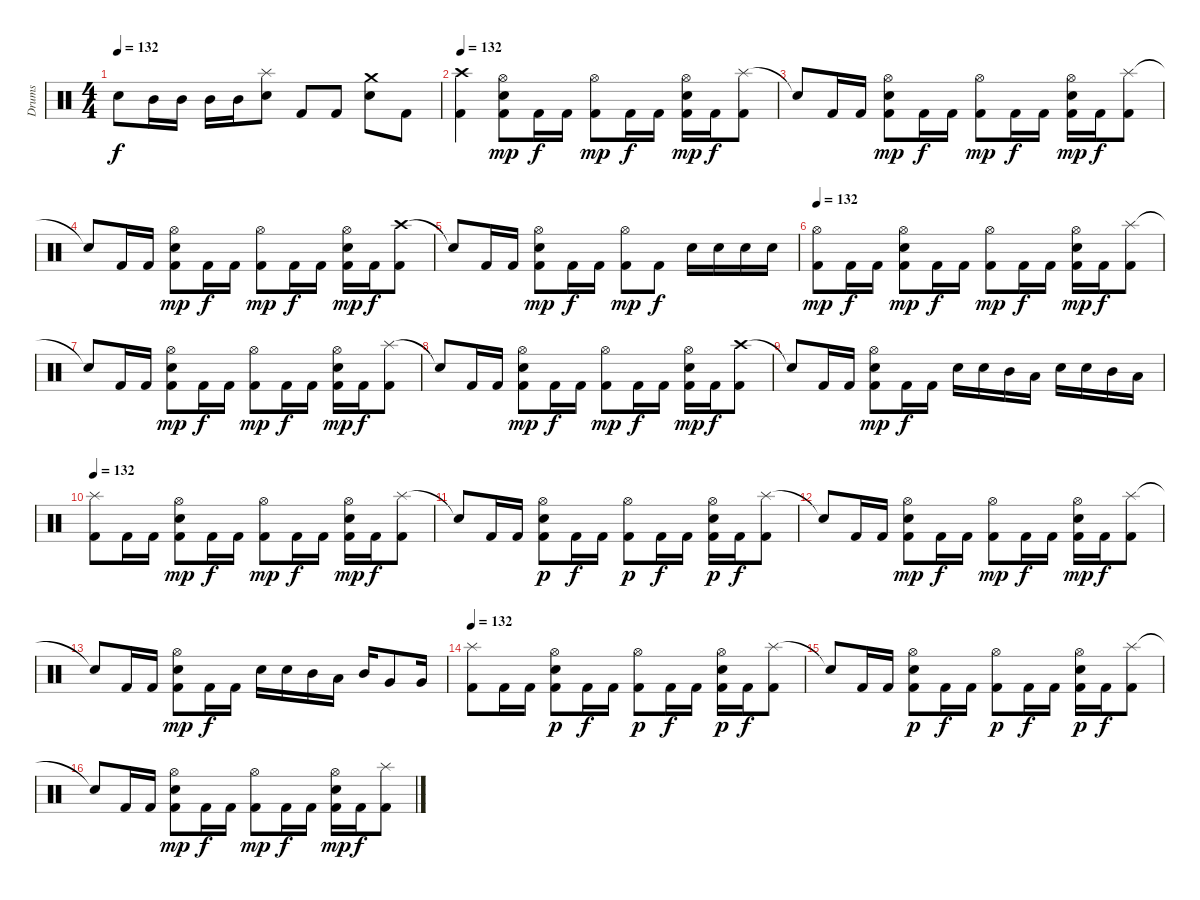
\track ("Drums" "Drums") {instrument percussion}
\staff {score}
\articulation defaults
\ts (4 4)
\tempo 132
\clef neutral
\ks c "Snare (hit) 2".8{dy f} "Mid Tom (hit)".16 "Mid Tom (hit)".16 "Mid Tom (hit)".16 "Mid Tom (hit)".16
("Snare (hit) 2" "Splash (hit)").8 "Kick (hit) 2".8 "Kick (hit) 2".8 ("Snare (hit) 2" "Crash medium (hit)").8 "Kick (hit) 2".8 |
\tempo 132
("Crash high (hit)" "Kick (hit) 2").4 ("Snare (hit) 2" "Hi-Hat (open)" "Kick (hit) 2").8{dy mp} "Kick (hit) 2".16{dy f} "Kick (hit) 2".16 ("Hi-Hat (open)" "Kick (hit) 2").8{dy mp} "Kick (hit) 2".16{dy f} "Kick (hit) 2".16 ("Snare (hit) 2" "Hi-Hat (open)" "Kick (hit) 2").16{dy mp} "Kick (hit) 2".16{dy f} ("Splash (hit)" "Kick (hit) 2").8 |
"Snare (hit)"{t}.8 "Kick (hit) 2".16 "Kick (hit) 2".16 ("Snare (hit) 2" "Hi-Hat (open)" "Kick (hit) 2").8{dy mp} "Kick (hit) 2".16{dy f} "Kick (hit) 2".16 ("Hi-Hat (open)" "Kick (hit) 2").8{dy mp} "Kick (hit) 2".16{dy f} "Kick (hit) 2".16 ("Snare (hit) 2" "Hi-Hat (open)" "Kick (hit) 2").16{dy mp} "Kick (hit) 2".16{dy f} ("Splash (hit)" "Kick (hit) 2").8 |
"Snare (hit)"{t}.8 "Kick (hit) 2".16 "Kick (hit) 2".16 ("Snare (hit) 2" "Hi-Hat (open)" "Kick (hit) 2").8{dy mp} "Kick (hit) 2".16{dy f} "Kick (hit) 2".16 ("Hi-Hat (open)" "Kick (hit) 2").8{dy mp} "Kick (hit) 2".16{dy f} "Kick (hit) 2".16 ("Snare (hit) 2" "Hi-Hat (open)" "Kick (hit) 2").16{dy mp} "Kick (hit) 2".16{dy f} ("Crash high (hit)" "Kick (hit) 2").8 |
"Snare (hit)"{t}.8 "Kick (hit) 2".16 "Kick (hit) 2".16 ("Snare (hit) 2" "Hi-Hat (open)" "Kick (hit) 2").8{dy mp} "Kick (hit) 2".16{dy f} "Kick (hit) 2".16 ("Hi-Hat (open)" "Kick (hit) 2").8{dy mp} "Kick (hit) 2".8{dy f} "Snare (hit) 2".16 "Snare (hit) 2".16 "Snare (hit) 2".16 "Snare (hit) 2".16 |
\tempo 132
("Hi-Hat (open)" "Kick (hit) 2").8{dy mp} "Kick (hit) 2".16{dy f} "Kick (hit) 2".16 ("Snare (hit) 2" "Hi-Hat (open)" "Kick (hit) 2").8{dy mp} "Kick (hit) 2".16{dy f} "Kick (hit) 2".16 ("Hi-Hat (open)" "Kick (hit) 2").8{dy mp} "Kick (hit) 2".16{dy f} "Kick (hit) 2".16 ("Snare (hit) 2" "Hi-Hat (open)" "Kick (hit) 2").16{dy mp} "Kick (hit) 2".16{dy f} ("Splash (hit)" "Kick (hit) 2").8 |
"Snare (hit)"{t}.8 "Kick (hit) 2".16 "Kick (hit) 2".16 ("Snare (hit) 2" "Hi-Hat (open)" "Kick (hit) 2").8{dy mp} "Kick (hit) 2".16{dy f} "Kick (hit) 2".16 ("Hi-Hat (open)" "Kick (hit) 2").8{dy mp} "Kick (hit) 2".16{dy f} "Kick (hit) 2".16 ("Snare (hit) 2" "Hi-Hat (open)" "Kick (hit) 2").16{dy mp} "Kick (hit) 2".16{dy f} ("Splash (hit)" "Kick (hit) 2").8 |
"Snare (hit)"{t}.8 "Kick (hit) 2".16 "Kick (hit) 2".16 ("Snare (hit) 2" "Hi-Hat (open)" "Kick (hit) 2").8{dy mp} "Kick (hit) 2".16{dy f} "Kick (hit) 2".16 ("Hi-Hat (open)" "Kick (hit) 2").8{dy mp} "Kick (hit) 2".16{dy f} "Kick (hit) 2".16 ("Snare (hit) 2" "Hi-Hat (open)" "Kick (hit) 2").16{dy mp} "Kick (hit) 2".16{dy f} ("Crash high (hit)" "Kick (hit) 2").8 |
"Snare (hit)"{t}.8 "Kick (hit) 2".16 "Kick (hit) 2".16 ("Snare (hit) 2" "Hi-Hat (open)" "Kick (hit) 2").8{dy mp} "Kick (hit) 2".16{dy f} "Kick (hit) 2".16 "Snare (hit) 2".16 "Snare (hit) 2".16 "Mid Tom (hit)".16 "Low Tom (hit)".16 "Snare (hit) 2".16 "Snare (hit) 2".16 "Mid Tom (hit)".16 "Low Tom (hit)".16 |
\tempo 132
("Splash (hit)" "Kick (hit) 2").8 "Kick (hit) 2".16 "Kick (hit) 2".16 ("Snare (hit) 2" "Hi-Hat (open)" "Kick (hit) 2").8{dy mp} "Kick (hit) 2".16{dy f} "Kick (hit) 2".16 ("Hi-Hat (open)" "Kick (hit) 2").8{dy mp} "Kick (hit) 2".16{dy f} "Kick (hit) 2".16 ("Snare (hit) 2" "Hi-Hat (open)" "Kick (hit) 2").16{dy mp} "Kick (hit) 2".16{dy f} ("Splash (hit)" "Kick (hit) 2").8 |
"Snare (hit)"{t}.8 "Kick (hit) 2".16 "Kick (hit) 2".16 ("Snare (hit) 2" "Hi-Hat (open)" "Kick (hit) 2").8{dy p} "Kick (hit) 2".16{dy f} "Kick (hit) 2".16 ("Hi-Hat (open)" "Kick (hit) 2").8{dy p} "Kick (hit) 2".16{dy f} "Kick (hit) 2".16 ("Snare (hit) 2" "Hi-Hat (open)" "Kick (hit) 2").16{dy p} "Kick (hit) 2".16{dy f} ("Splash (hit)" "Kick (hit) 2").8 |
"Snare (hit)"{t}.8 "Kick (hit) 2".16 "Kick (hit) 2".16 ("Snare (hit) 2" "Hi-Hat (open)" "Kick (hit) 2").8{dy mp} "Kick (hit) 2".16{dy f} "Kick (hit) 2".16 ("Hi-Hat (open)" "Kick (hit) 2").8{dy mp} "Kick (hit) 2".16{dy f} "Kick (hit) 2".16 ("Snare (hit) 2" "Hi-Hat (open)" "Kick (hit) 2").16{dy mp} "Kick (hit) 2".16{dy f} ("Splash (hit)" "Kick (hit) 2").8 |
"Snare (hit)"{t}.8 "Kick (hit) 2".16 "Kick (hit) 2".16 ("Snare (hit) 2" "Hi-Hat (open)" "Kick (hit) 2").8{dy mp} "Kick (hit) 2".16{dy f} "Kick (hit) 2".16 "Snare (hit) 2".16 "Snare (hit) 2".16 "Mid Tom (hit)".16 "Low Tom (hit)".16 "Mid Tom (hit)".16 "Very Low Tom (hit)".8 "Very Low Tom (hit)".16 |
\tempo 132
("Splash (hit)" "Kick (hit) 2").8 "Kick (hit) 2".16 "Kick (hit) 2".16 ("Snare (hit) 2" "Hi-Hat (open)" "Kick (hit) 2").8{dy p} "Kick (hit) 2".16{dy f} "Kick (hit) 2".16 ("Hi-Hat (open)" "Kick (hit) 2").8{dy p} "Kick (hit) 2".16{dy f} "Kick (hit) 2".16 ("Snare (hit) 2" "Hi-Hat (open)" "Kick (hit) 2").16{dy p} "Kick (hit) 2".16{dy f} ("Splash (hit)" "Kick (hit) 2").8 |
"Snare (hit)"{t}.8 "Kick (hit) 2".16 "Kick (hit) 2".16 ("Snare (hit) 2" "Hi-Hat (open)" "Kick (hit) 2").8{dy p} "Kick (hit) 2".16{dy f} "Kick (hit) 2".16 ("Hi-Hat (open)" "Kick (hit) 2").8{dy p} "Kick (hit) 2".16{dy f} "Kick (hit) 2".16 ("Snare (hit) 2" "Hi-Hat (open)" "Kick (hit) 2").16{dy p} "Kick (hit) 2".16{dy f} ("Splash (hit)" "Kick (hit) 2").8 |
"Snare (hit)"{t}.8 "Kick (hit) 2".16 "Kick (hit) 2".16 ("Snare (hit) 2" "Hi-Hat (open)" "Kick (hit) 2").8{dy mp} "Kick (hit) 2".16{dy f} "Kick (hit) 2".16 ("Hi-Hat (open)" "Kick (hit) 2").8{dy mp} "Kick (hit) 2".16{dy f} "Kick (hit) 2".16 ("Snare (hit) 2" "Hi-Hat (open)" "Kick (hit) 2").16{dy mp} "Kick (hit) 2".16{dy f} ("Splash (hit)" "Kick (hit) 2").8
